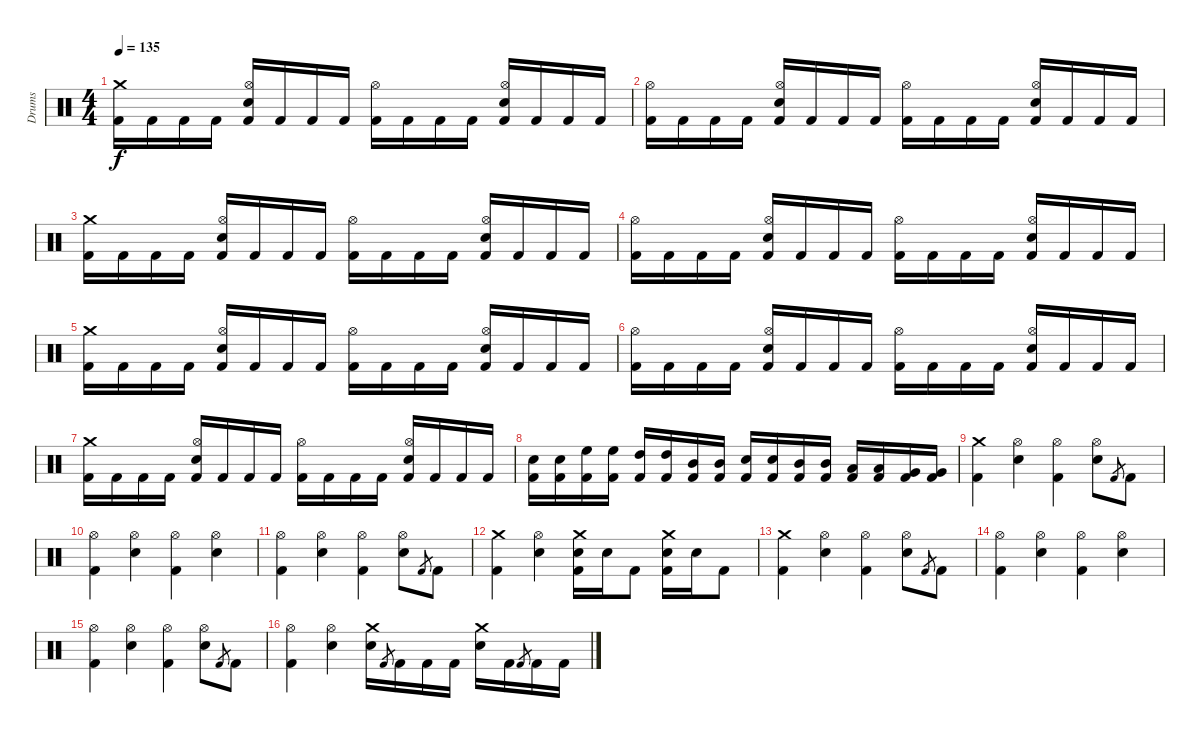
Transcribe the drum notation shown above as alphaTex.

\track ("Drums" "Drums") {instrument percussion}
\staff {score}
\articulation defaults
\ts (4 4)
\tempo 135
\clef neutral
\ks c
("Crash medium (hit)" "Kick (hit) 2").16{dy f} "Kick (hit) 2".16 "Kick (hit) 2".16 "Kick (hit) 2".16 ("Hi-Hat (open)" "Snare (hit) 2" "Kick (hit) 2").16 "Kick (hit) 2".16 "Kick (hit) 2".16 "Kick (hit) 2".16 ("Hi-Hat (open)" "Kick (hit) 2").16 "Kick (hit) 2".16 "Kick (hit) 2".16 "Kick (hit) 2".16 ("Hi-Hat (open)" "Snare (hit) 2" "Kick (hit) 2").16 "Kick (hit) 2".16 "Kick (hit) 2".16 "Kick (hit) 2".16 |
("Hi-Hat (open)" "Kick (hit) 2").16 "Kick (hit) 2".16 "Kick (hit) 2".16 "Kick (hit) 2".16 ("Hi-Hat (open)" "Snare (hit) 2" "Kick (hit) 2").16 "Kick (hit) 2".16 "Kick (hit) 2".16 "Kick (hit) 2".16 ("Hi-Hat (open)" "Kick (hit) 2").16 "Kick (hit) 2".16 "Kick (hit) 2".16 "Kick (hit) 2".16 ("Hi-Hat (open)" "Snare (hit) 2" "Kick (hit) 2").16 "Kick (hit) 2".16 "Kick (hit) 2".16 "Kick (hit) 2".16 |
("Crash medium (hit)" "Kick (hit) 2").16 "Kick (hit) 2".16 "Kick (hit) 2".16 "Kick (hit) 2".16 ("Hi-Hat (open)" "Snare (hit) 2" "Kick (hit) 2").16 "Kick (hit) 2".16 "Kick (hit) 2".16 "Kick (hit) 2".16 ("Hi-Hat (open)" "Kick (hit) 2").16 "Kick (hit) 2".16 "Kick (hit) 2".16 "Kick (hit) 2".16 ("Hi-Hat (open)" "Snare (hit) 2" "Kick (hit) 2").16 "Kick (hit) 2".16 "Kick (hit) 2".16 "Kick (hit) 2".16 |
("Hi-Hat (open)" "Kick (hit) 2").16 "Kick (hit) 2".16 "Kick (hit) 2".16 "Kick (hit) 2".16 ("Hi-Hat (open)" "Snare (hit) 2" "Kick (hit) 2").16 "Kick (hit) 2".16 "Kick (hit) 2".16 "Kick (hit) 2".16 ("Hi-Hat (open)" "Kick (hit) 2").16 "Kick (hit) 2".16 "Kick (hit) 2".16 "Kick (hit) 2".16 ("Hi-Hat (open)" "Snare (hit) 2" "Kick (hit) 2").16 "Kick (hit) 2".16 "Kick (hit) 2".16 "Kick (hit) 2".16 |
("Crash medium (hit)" "Kick (hit) 2").16 "Kick (hit) 2".16 "Kick (hit) 2".16 "Kick (hit) 2".16 ("Hi-Hat (open)" "Snare (hit) 2" "Kick (hit) 2").16 "Kick (hit) 2".16 "Kick (hit) 2".16 "Kick (hit) 2".16 ("Hi-Hat (open)" "Kick (hit) 2").16 "Kick (hit) 2".16 "Kick (hit) 2".16 "Kick (hit) 2".16 ("Hi-Hat (open)" "Snare (hit) 2" "Kick (hit) 2").16 "Kick (hit) 2".16 "Kick (hit) 2".16 "Kick (hit) 2".16 |
("Hi-Hat (open)" "Kick (hit) 2").16 "Kick (hit) 2".16 "Kick (hit) 2".16 "Kick (hit) 2".16 ("Hi-Hat (open)" "Snare (hit) 2" "Kick (hit) 2").16 "Kick (hit) 2".16 "Kick (hit) 2".16 "Kick (hit) 2".16 ("Hi-Hat (open)" "Kick (hit) 2").16 "Kick (hit) 2".16 "Kick (hit) 2".16 "Kick (hit) 2".16 ("Hi-Hat (open)" "Snare (hit) 2" "Kick (hit) 2").16 "Kick (hit) 2".16 "Kick (hit) 2".16 "Kick (hit) 2".16 |
("Crash medium (hit)" "Kick (hit) 2").16 "Kick (hit) 2".16 "Kick (hit) 2".16 "Kick (hit) 2".16 ("Hi-Hat (open)" "Snare (hit) 2" "Kick (hit) 2").16 "Kick (hit) 2".16 "Kick (hit) 2".16 "Kick (hit) 2".16 ("Hi-Hat (open)" "Kick (hit) 2").16 "Kick (hit) 2".16 "Kick (hit) 2".16 "Kick (hit) 2".16 ("Hi-Hat (open)" "Snare (hit) 2" "Kick (hit) 2").16 "Kick (hit) 2".16 "Kick (hit) 2".16 "Kick (hit) 2".16 |
("Snare (hit) 2" "Kick (hit) 2").16 ("Snare (hit) 2" "Kick (hit) 2").16 ("High Floor Tom (hit)" "Kick (hit) 2").16 ("High Floor Tom (hit)" "Kick (hit) 2").16 ("High Tom (hit)" "Kick (hit) 2").16 ("High Tom (hit)" "Kick (hit) 2").16 ("Mid Tom (hit)" "Kick (hit) 2").16 ("Mid Tom (hit)" "Kick (hit) 2").16 ("Snare (hit) 2" "Kick (hit) 2").16 ("Snare (hit) 2" "Kick (hit) 2").16 ("Mid Tom (hit)" "Kick (hit) 2").16 ("Mid Tom (hit)" "Kick (hit) 2").16 ("Low Tom (hit)" "Kick (hit) 2").16 ("Low Tom (hit)" "Kick (hit) 2").16 ("Very Low Tom (hit)" "Kick (hit) 2").16 ("Very Low Tom (hit)" "Kick (hit) 2").16 |
("Crash medium (hit)" "Kick (hit) 2").4 ("Hi-Hat (open)" "Snare (hit) 2").4 ("Hi-Hat (open)" "Kick (hit) 2").4 ("Hi-Hat (open)" "Snare (hit) 2").8 "Kick (hit) 2".8{gr} "Kick (hit) 2".8 |
("Hi-Hat (open)" "Kick (hit) 2").4 ("Hi-Hat (open)" "Snare (hit) 2").4 ("Hi-Hat (open)" "Kick (hit) 2").4 ("Hi-Hat (open)" "Snare (hit) 2").4 |
("Hi-Hat (open)" "Kick (hit) 2").4 ("Hi-Hat (open)" "Snare (hit) 2").4 ("Hi-Hat (open)" "Kick (hit) 2").4 ("Hi-Hat (open)" "Snare (hit) 2").8 "Kick (hit) 2".8{gr} "Kick (hit) 2".8 |
("Crash medium (hit)" "Kick (hit) 2").4 ("Hi-Hat (open)" "Snare (hit) 2").4 ("Crash medium (hit)" "Snare (hit) 2" "Kick (hit) 2").16 "Snare (hit) 2".16 "Kick (hit) 2".8 ("Crash medium (hit)" "Snare (hit) 2" "Kick (hit) 2").16 "Snare (hit) 2".16 "Kick (hit) 2".8 |
("Crash medium (hit)" "Kick (hit) 2").4 ("Hi-Hat (open)" "Snare (hit) 2").4 ("Hi-Hat (open)" "Kick (hit) 2").4 ("Hi-Hat (open)" "Snare (hit) 2").8 "Kick (hit) 2".8{gr} "Kick (hit) 2".8 |
("Hi-Hat (open)" "Kick (hit) 2").4 ("Hi-Hat (open)" "Snare (hit) 2").4 ("Hi-Hat (open)" "Kick (hit) 2").4 ("Hi-Hat (open)" "Snare (hit) 2").4 |
("Hi-Hat (open)" "Kick (hit) 2").4 ("Hi-Hat (open)" "Snare (hit) 2").4 ("Hi-Hat (open)" "Kick (hit) 2").4 ("Hi-Hat (open)" "Snare (hit) 2").8 "Kick (hit) 2".8{gr} "Kick (hit) 2".8 |
("Hi-Hat (open)" "Kick (hit) 2").4 ("Hi-Hat (open)" "Snare (hit) 2").4 ("Crash medium (hit)" "Snare (hit) 2").16 "Kick (hit) 2".8{gr} "Kick (hit) 2".16 "Kick (hit) 2".16 "Kick (hit) 2".16 ("Crash medium (hit)" "Snare (hit) 2").16 "Kick (hit) 2".16 "Kick (hit) 2".8{gr} "Kick (hit) 2".16 "Kick (hit) 2".16
